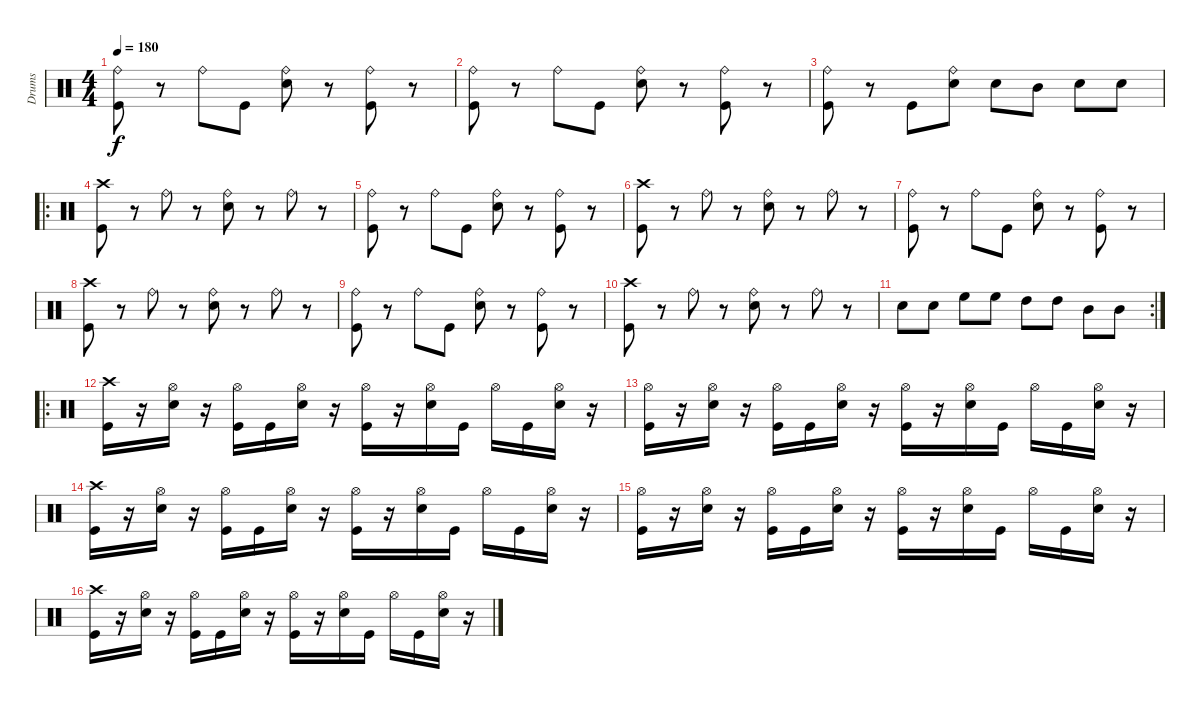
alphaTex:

\track ("Drums" "Drums") {instrument percussion}
\staff {score}
\articulation defaults
\ts (4 4)
\tempo 180
\clef neutral
\ks c
("Ride (bell)" "Kick (hit)").8{dy f} r.8 "Ride (bell)".8 "Kick (hit)".8 ("Ride (bell)" "Electric Snare (hit)").8 r.8 ("Ride (bell)" "Kick (hit)").8 r.8 |
("Ride (bell)" "Kick (hit)").8 r.8 "Ride (bell)".8 "Kick (hit)".8 ("Ride (bell)" "Electric Snare (hit)").8 r.8 ("Ride (bell)" "Kick (hit)").8 r.8 |
("Ride (bell)" "Kick (hit)").8 r.8 "Kick (hit)".8 ("Ride (bell)" "Electric Snare (hit)").8 "Electric Snare (hit)".8 "Mid Tom (hit)".8 "Electric Snare (hit)".8 "Electric Snare (hit)".8 |
\ro
("Crash high (hit)" "Kick (hit)").8 r.8 "Ride (bell)".8 r.8 ("Ride (bell)" "Electric Snare (hit)").8 r.8 "Ride (bell)".8 r.8 |
("Ride (bell)" "Kick (hit)").8 r.8 "Ride (bell)".8 "Kick (hit)".8 ("Ride (bell)" "Electric Snare (hit)").8 r.8 ("Ride (bell)" "Kick (hit)").8 r.8 |
("Crash high (hit)" "Kick (hit)").8 r.8 "Ride (bell)".8 r.8 ("Ride (bell)" "Electric Snare (hit)").8 r.8 "Ride (bell)".8 r.8 |
("Ride (bell)" "Kick (hit)").8 r.8 "Ride (bell)".8 "Kick (hit)".8 ("Ride (bell)" "Electric Snare (hit)").8 r.8 ("Ride (bell)" "Kick (hit)").8 r.8 |
("Crash high (hit)" "Kick (hit)").8 r.8 "Ride (bell)".8 r.8 ("Ride (bell)" "Electric Snare (hit)").8 r.8 "Ride (bell)".8 r.8 |
("Ride (bell)" "Kick (hit)").8 r.8 "Ride (bell)".8 "Kick (hit)".8 ("Ride (bell)" "Electric Snare (hit)").8 r.8 ("Ride (bell)" "Kick (hit)").8 r.8 |
("Crash high (hit)" "Kick (hit)").8 r.8 "Ride (bell)".8 r.8 ("Ride (bell)" "Electric Snare (hit)").8 r.8 "Ride (bell)".8 r.8 |
\rc 2 "Electric Snare (hit)".8 "Electric Snare (hit)".8 "High Floor Tom (hit)".8 "High Floor Tom (hit)".8 "High Tom (hit)".8 "High Tom (hit)".8 "Mid Tom (hit)".8 "Mid Tom (hit)".8
|
\ro
("Crash high (hit)" "Kick (hit)").16 r.16 ("Hi-Hat (open)" "Electric Snare (hit)").16 r.16 ("Hi-Hat (open)" "Kick (hit)").16 "Kick (hit)".16 ("Hi-Hat (open)" "Electric Snare (hit)").16 r.16 ("Hi-Hat (open)" "Kick (hit)").16 r.16 ("Hi-Hat (open)" "Electric Snare (hit)").16 "Kick (hit)".16 "Hi-Hat (open)".16 "Kick (hit)".16 ("Hi-Hat (open)" "Electric Snare (hit)").16 r.16 |
("Hi-Hat (open)" "Kick (hit)").16 r.16 ("Hi-Hat (open)" "Electric Snare (hit)").16 r.16 ("Hi-Hat (open)" "Kick (hit)").16 "Kick (hit)".16 ("Hi-Hat (open)" "Electric Snare (hit)").16 r.16 ("Hi-Hat (open)" "Kick (hit)").16 r.16 ("Hi-Hat (open)" "Electric Snare (hit)").16 "Kick (hit)".16 "Hi-Hat (open)".16 "Kick (hit)".16 ("Hi-Hat (open)" "Electric Snare (hit)").16 r.16 |
("Crash high (hit)" "Kick (hit)").16 r.16 ("Hi-Hat (open)" "Electric Snare (hit)").16 r.16 ("Hi-Hat (open)" "Kick (hit)").16 "Kick (hit)".16 ("Hi-Hat (open)" "Electric Snare (hit)").16 r.16 ("Hi-Hat (open)" "Kick (hit)").16 r.16 ("Hi-Hat (open)" "Electric Snare (hit)").16 "Kick (hit)".16 "Hi-Hat (open)".16 "Kick (hit)".16 ("Hi-Hat (open)" "Electric Snare (hit)").16 r.16 |
("Hi-Hat (open)" "Kick (hit)").16 r.16 ("Hi-Hat (open)" "Electric Snare (hit)").16 r.16 ("Hi-Hat (open)" "Kick (hit)").16 "Kick (hit)".16 ("Hi-Hat (open)" "Electric Snare (hit)").16 r.16 ("Hi-Hat (open)" "Kick (hit)").16 r.16 ("Hi-Hat (open)" "Electric Snare (hit)").16 "Kick (hit)".16 "Hi-Hat (open)".16 "Kick (hit)".16 ("Hi-Hat (open)" "Electric Snare (hit)").16 r.16 |
("Crash high (hit)" "Kick (hit)").16 r.16 ("Hi-Hat (open)" "Electric Snare (hit)").16 r.16 ("Hi-Hat (open)" "Kick (hit)").16 "Kick (hit)".16 ("Hi-Hat (open)" "Electric Snare (hit)").16 r.16 ("Hi-Hat (open)" "Kick (hit)").16 r.16 ("Hi-Hat (open)" "Electric Snare (hit)").16 "Kick (hit)".16 "Hi-Hat (open)".16 "Kick (hit)".16 ("Hi-Hat (open)" "Electric Snare (hit)").16 r.16
